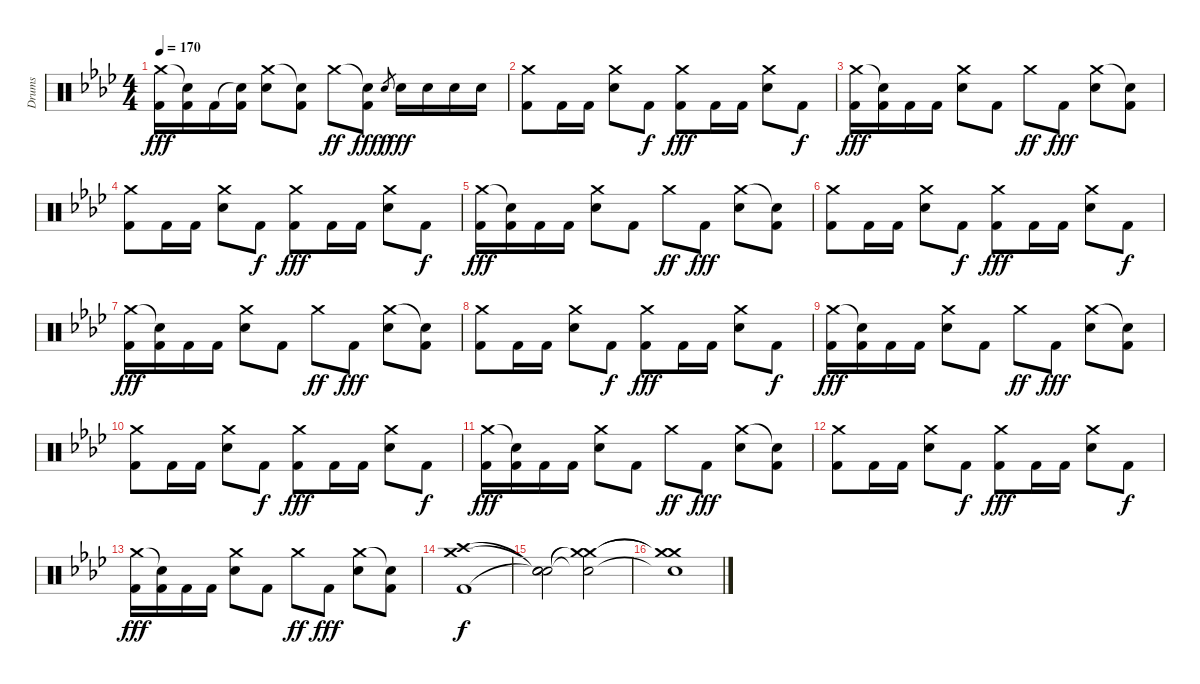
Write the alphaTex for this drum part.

\track ("Drums" "Drums") {instrument percussion}
\staff {score}
\articulation defaults
\ts (4 4)
\tempo 170
\clef neutral
\ks fminor
("Crash medium (hit)" "Kick (hit) 2").16{dy fff} ("Snare (hit)"{t} "Kick (hit) 2").16 "Kick (hit) 2".16 ("Snare (hit)"{t} "Kick (hit) 2").16 ("Crash medium (hit)" "Snare (hit) 2").8 ("Snare (hit)"{t} "Kick (hit) 2").8 "Crash medium (hit)".8{dy ff} ("Snare (hit)"{t} "Kick (hit) 2").8{dy fff} "Snare (hit) 2".8{gr dy f} "Snare (hit) 2".16{dy fff} "Snare (hit) 2".16 "Snare (hit) 2".16 "Snare (hit) 2".16 |
("Crash medium (hit)" "Kick (hit) 2").8 "Kick (hit) 2".16 "Kick (hit) 2".16 ("Crash medium (hit)" "Snare (hit) 2").8 "Kick (hit) 2".8{dy f} ("Crash medium (hit)" "Kick (hit) 2").8{dy fff} "Kick (hit) 2".16 "Kick (hit) 2".16 ("Crash medium (hit)" "Snare (hit) 2").8 "Kick (hit) 2".8{dy f} |
("Crash medium (hit)" "Kick (hit) 2").16{dy fff} ("Snare (hit)"{t} "Kick (hit) 2").16 "Kick (hit) 2".16 "Kick (hit) 2".16 ("Crash medium (hit)" "Snare (hit) 2").8 "Kick (hit) 2".8 "Crash medium (hit)".8{dy ff} "Kick (hit) 2".8{dy fff} ("Crash medium (hit)" "Snare (hit) 2").8 ("Snare (hit)"{t} "Kick (hit) 2").8 |
("Crash medium (hit)" "Kick (hit) 2").8 "Kick (hit) 2".16 "Kick (hit) 2".16 ("Crash medium (hit)" "Snare (hit) 2").8 "Kick (hit) 2".8{dy f} ("Crash medium (hit)" "Kick (hit) 2").8{dy fff} "Kick (hit) 2".16 "Kick (hit) 2".16 ("Crash medium (hit)" "Snare (hit) 2").8 "Kick (hit) 2".8{dy f} |
("Crash medium (hit)" "Kick (hit) 2").16{dy fff} ("Snare (hit)"{t} "Kick (hit) 2").16 "Kick (hit) 2".16 "Kick (hit) 2".16 ("Crash medium (hit)" "Snare (hit) 2").8 "Kick (hit) 2".8 "Crash medium (hit)".8{dy ff} "Kick (hit) 2".8{dy fff} ("Crash medium (hit)" "Snare (hit) 2").8 ("Snare (hit)"{t} "Kick (hit) 2").8 |
("Crash medium (hit)" "Kick (hit) 2").8 "Kick (hit) 2".16 "Kick (hit) 2".16 ("Crash medium (hit)" "Snare (hit) 2").8 "Kick (hit) 2".8{dy f} ("Crash medium (hit)" "Kick (hit) 2").8{dy fff} "Kick (hit) 2".16 "Kick (hit) 2".16 ("Crash medium (hit)" "Snare (hit) 2").8 "Kick (hit) 2".8{dy f} |
("Crash medium (hit)" "Kick (hit) 2").16{dy fff} ("Snare (hit)"{t} "Kick (hit) 2").16 "Kick (hit) 2".16 "Kick (hit) 2".16 ("Crash medium (hit)" "Snare (hit) 2").8 "Kick (hit) 2".8 "Crash medium (hit)".8{dy ff} "Kick (hit) 2".8{dy fff} ("Crash medium (hit)" "Snare (hit) 2").8 ("Snare (hit)"{t} "Kick (hit) 2").8 |
("Crash medium (hit)" "Kick (hit) 2").8 "Kick (hit) 2".16 "Kick (hit) 2".16 ("Crash medium (hit)" "Snare (hit) 2").8 "Kick (hit) 2".8{dy f} ("Crash medium (hit)" "Kick (hit) 2").8{dy fff} "Kick (hit) 2".16 "Kick (hit) 2".16 ("Crash medium (hit)" "Snare (hit) 2").8 "Kick (hit) 2".8{dy f} |
("Crash medium (hit)" "Kick (hit) 2").16{dy fff} ("Snare (hit)"{t} "Kick (hit) 2").16 "Kick (hit) 2".16 "Kick (hit) 2".16 ("Crash medium (hit)" "Snare (hit) 2").8 "Kick (hit) 2".8 "Crash medium (hit)".8{dy ff} "Kick (hit) 2".8{dy fff} ("Crash medium (hit)" "Snare (hit) 2").8 ("Snare (hit)"{t} "Kick (hit) 2").8 |
("Crash medium (hit)" "Kick (hit) 2").8 "Kick (hit) 2".16 "Kick (hit) 2".16 ("Crash medium (hit)" "Snare (hit) 2").8 "Kick (hit) 2".8{dy f} ("Crash medium (hit)" "Kick (hit) 2").8{dy fff} "Kick (hit) 2".16 "Kick (hit) 2".16 ("Crash medium (hit)" "Snare (hit) 2").8 "Kick (hit) 2".8{dy f} |
("Crash medium (hit)" "Kick (hit) 2").16{dy fff} ("Snare (hit)"{t} "Kick (hit) 2").16 "Kick (hit) 2".16 "Kick (hit) 2".16 ("Crash medium (hit)" "Snare (hit) 2").8 "Kick (hit) 2".8 "Crash medium (hit)".8{dy ff} "Kick (hit) 2".8{dy fff} ("Crash medium (hit)" "Snare (hit) 2").8 ("Snare (hit)"{t} "Kick (hit) 2").8 |
("Crash medium (hit)" "Kick (hit) 2").8 "Kick (hit) 2".16 "Kick (hit) 2".16 ("Crash medium (hit)" "Snare (hit) 2").8 "Kick (hit) 2".8{dy f} ("Crash medium (hit)" "Kick (hit) 2").8{dy fff} "Kick (hit) 2".16 "Kick (hit) 2".16 ("Crash medium (hit)" "Snare (hit) 2").8 "Kick (hit) 2".8{dy f} |
("Crash medium (hit)" "Kick (hit) 2").16{dy fff} ("Snare (hit)"{t} "Kick (hit) 2").16 "Kick (hit) 2".16 "Kick (hit) 2".16 ("Crash medium (hit)" "Snare (hit) 2").8 "Kick (hit) 2".8 "Crash medium (hit)".8{dy ff} "Kick (hit) 2".8{dy fff} ("Crash medium (hit)" "Snare (hit) 2").8 ("Snare (hit)"{t} "Kick (hit) 2").8 |
("Crash medium (hit)" "Crash high (hit)" "Kick (hit) 2").1{dy f} |
("Snare (hit)"{t} "Snare (hit)"{t} "Snare (hit)"{t}).2 ("Crash medium (hit)"{t} "Crash medium (hit)"{t} "Snare (hit)"{t}).2{volume 0} |
("Crash medium (hit)"{t} "Crash medium (hit)"{t} "Snare (hit)"{t}).1
